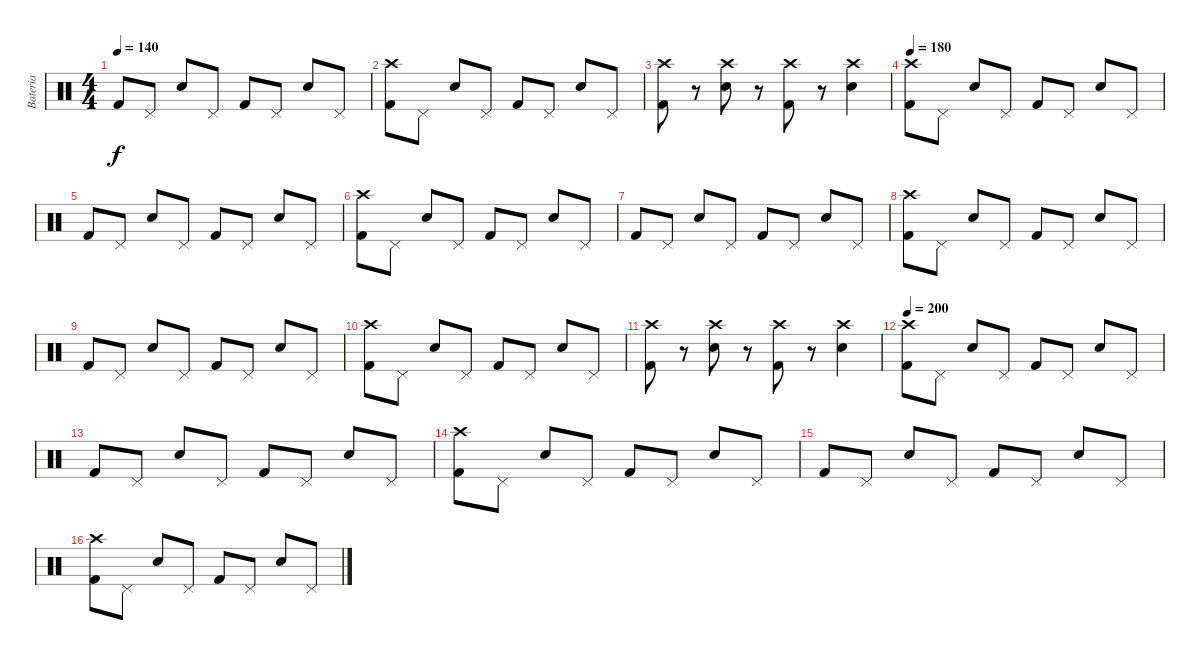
\track ("Batería" "Batería") {instrument percussion}
\staff {score}
\articulation defaults
\ts (4 4)
\tempo 140
\clef neutral
\ks c "Kick (hit) 2".8{dy f} "Pedal Hi-Hat (hit)".8 "Snare (hit) 2".8 "Pedal Hi-Hat (hit)".8 "Kick (hit) 2".8 "Pedal Hi-Hat (hit)".8 "Snare (hit) 2".8 "Pedal Hi-Hat (hit)".8
|
("Crash high (hit)" "Kick (hit) 2").8 "Pedal Hi-Hat (hit)".8 "Snare (hit) 2".8 "Pedal Hi-Hat (hit)".8 "Kick (hit) 2".8 "Pedal Hi-Hat (hit)".8 "Snare (hit) 2".8 "Pedal Hi-Hat (hit)".8 |
("Crash high (hit)" "Kick (hit) 2").8 r.8 ("Crash high (hit)" "Snare (hit) 2").8 r.8 ("Crash high (hit)" "Kick (hit) 2").8 r.8 ("Crash high (hit)" "Snare (hit) 2").4 |
\tempo 180
("Crash high (hit)" "Kick (hit) 2").8 "Pedal Hi-Hat (hit)".8 "Snare (hit) 2".8 "Pedal Hi-Hat (hit)".8 "Kick (hit) 2".8 "Pedal Hi-Hat (hit)".8 "Snare (hit) 2".8 "Pedal Hi-Hat (hit)".8 |
"Kick (hit) 2".8 "Pedal Hi-Hat (hit)".8 "Snare (hit) 2".8 "Pedal Hi-Hat (hit)".8 "Kick (hit) 2".8 "Pedal Hi-Hat (hit)".8 "Snare (hit) 2".8 "Pedal Hi-Hat (hit)".8 |
("Crash high (hit)" "Kick (hit) 2").8 "Pedal Hi-Hat (hit)".8 "Snare (hit) 2".8 "Pedal Hi-Hat (hit)".8 "Kick (hit) 2".8 "Pedal Hi-Hat (hit)".8 "Snare (hit) 2".8 "Pedal Hi-Hat (hit)".8 |
"Kick (hit) 2".8 "Pedal Hi-Hat (hit)".8 "Snare (hit) 2".8 "Pedal Hi-Hat (hit)".8 "Kick (hit) 2".8 "Pedal Hi-Hat (hit)".8 "Snare (hit) 2".8 "Pedal Hi-Hat (hit)".8 |
("Crash high (hit)" "Kick (hit) 2").8 "Pedal Hi-Hat (hit)".8 "Snare (hit) 2".8 "Pedal Hi-Hat (hit)".8 "Kick (hit) 2".8 "Pedal Hi-Hat (hit)".8 "Snare (hit) 2".8 "Pedal Hi-Hat (hit)".8 |
"Kick (hit) 2".8 "Pedal Hi-Hat (hit)".8 "Snare (hit) 2".8 "Pedal Hi-Hat (hit)".8 "Kick (hit) 2".8 "Pedal Hi-Hat (hit)".8 "Snare (hit) 2".8 "Pedal Hi-Hat (hit)".8 |
("Crash high (hit)" "Kick (hit) 2").8 "Pedal Hi-Hat (hit)".8 "Snare (hit) 2".8 "Pedal Hi-Hat (hit)".8 "Kick (hit) 2".8 "Pedal Hi-Hat (hit)".8 "Snare (hit) 2".8 "Pedal Hi-Hat (hit)".8 |
("Crash high (hit)" "Kick (hit) 2").8 r.8 ("Crash high (hit)" "Snare (hit) 2").8 r.8 ("Crash high (hit)" "Kick (hit) 2").8 r.8 ("Crash high (hit)" "Snare (hit) 2").4 |
\tempo 200
("Crash high (hit)" "Kick (hit) 2").8 "Pedal Hi-Hat (hit)".8 "Snare (hit) 2".8 "Pedal Hi-Hat (hit)".8 "Kick (hit) 2".8 "Pedal Hi-Hat (hit)".8 "Snare (hit) 2".8 "Pedal Hi-Hat (hit)".8 |
"Kick (hit) 2".8 "Pedal Hi-Hat (hit)".8 "Snare (hit) 2".8 "Pedal Hi-Hat (hit)".8 "Kick (hit) 2".8 "Pedal Hi-Hat (hit)".8 "Snare (hit) 2".8 "Pedal Hi-Hat (hit)".8 |
("Crash high (hit)" "Kick (hit) 2").8 "Pedal Hi-Hat (hit)".8 "Snare (hit) 2".8 "Pedal Hi-Hat (hit)".8 "Kick (hit) 2".8 "Pedal Hi-Hat (hit)".8 "Snare (hit) 2".8 "Pedal Hi-Hat (hit)".8 |
"Kick (hit) 2".8 "Pedal Hi-Hat (hit)".8 "Snare (hit) 2".8 "Pedal Hi-Hat (hit)".8 "Kick (hit) 2".8 "Pedal Hi-Hat (hit)".8 "Snare (hit) 2".8 "Pedal Hi-Hat (hit)".8 |
("Crash high (hit)" "Kick (hit) 2").8 "Pedal Hi-Hat (hit)".8 "Snare (hit) 2".8 "Pedal Hi-Hat (hit)".8 "Kick (hit) 2".8 "Pedal Hi-Hat (hit)".8 "Snare (hit) 2".8 "Pedal Hi-Hat (hit)".8
